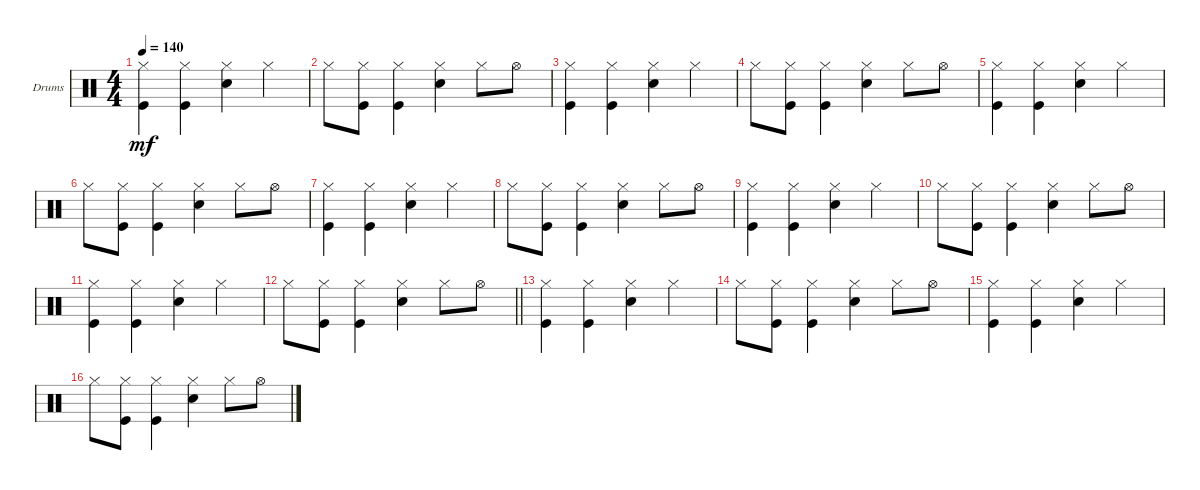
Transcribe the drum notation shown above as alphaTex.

\defaultSystemsLayout 4
\bracketExtendMode groupsimilarinstruments
\firstSystemTrackNameOrientation horizontal
\otherSystemsTrackNameOrientation horizontal
\track ("Drumkit" "Drums") {instrument percussion}
\staff {score}
\articulation defaults
\ts (4 4)
\tempo 140
\clef neutral
\ks c
("Hi-Hat (closed)" "Kick (hit)").4{dy mf} ("Hi-Hat (closed)" "Kick (hit)").4 ("Hi-Hat (closed)" "Snare (hit) 2").4 "Hi-Hat (closed)".4 |
"Hi-Hat (closed)".8 ("Hi-Hat (closed)" "Kick (hit)").8 ("Hi-Hat (closed)" "Kick (hit)").4 ("Snare (hit) 2" "Hi-Hat (closed)").4 "Hi-Hat (closed)".8 "Hi-Hat (open)".8 |
("Hi-Hat (closed)" "Kick (hit)").4 ("Hi-Hat (closed)" "Kick (hit)").4 ("Hi-Hat (closed)" "Snare (hit) 2").4 "Hi-Hat (closed)".4 |
"Hi-Hat (closed)".8 ("Hi-Hat (closed)" "Kick (hit)").8 ("Hi-Hat (closed)" "Kick (hit)").4 ("Snare (hit) 2" "Hi-Hat (closed)").4 "Hi-Hat (closed)".8 "Hi-Hat (open)".8 |
("Hi-Hat (closed)" "Kick (hit)").4 ("Hi-Hat (closed)" "Kick (hit)").4 ("Hi-Hat (closed)" "Snare (hit) 2").4 "Hi-Hat (closed)".4 |
"Hi-Hat (closed)".8 ("Hi-Hat (closed)" "Kick (hit)").8 ("Hi-Hat (closed)" "Kick (hit)").4 ("Snare (hit) 2" "Hi-Hat (closed)").4 "Hi-Hat (closed)".8 "Hi-Hat (open)".8 |
("Hi-Hat (closed)" "Kick (hit)").4 ("Hi-Hat (closed)" "Kick (hit)").4 ("Hi-Hat (closed)" "Snare (hit) 2").4 "Hi-Hat (closed)".4 |
"Hi-Hat (closed)".8 ("Hi-Hat (closed)" "Kick (hit)").8 ("Hi-Hat (closed)" "Kick (hit)").4 ("Snare (hit) 2" "Hi-Hat (closed)").4 "Hi-Hat (closed)".8 "Hi-Hat (open)".8 |
("Hi-Hat (closed)" "Kick (hit)").4 ("Hi-Hat (closed)" "Kick (hit)").4 ("Hi-Hat (closed)" "Snare (hit) 2").4 "Hi-Hat (closed)".4 |
"Hi-Hat (closed)".8 ("Hi-Hat (closed)" "Kick (hit)").8 ("Hi-Hat (closed)" "Kick (hit)").4 ("Snare (hit) 2" "Hi-Hat (closed)").4 "Hi-Hat (closed)".8 "Hi-Hat (open)".8 |
("Hi-Hat (closed)" "Kick (hit)").4 ("Hi-Hat (closed)" "Kick (hit)").4 ("Hi-Hat (closed)" "Snare (hit) 2").4 "Hi-Hat (closed)".4 |
\barLineRight lightlight "Hi-Hat (closed)".8
("Hi-Hat (closed)" "Kick (hit)").8 ("Hi-Hat (closed)" "Kick (hit)").4 ("Snare (hit) 2" "Hi-Hat (closed)").4 "Hi-Hat (closed)".8 "Hi-Hat (open)".8 |
("Hi-Hat (closed)" "Kick (hit)").4 ("Hi-Hat (closed)" "Kick (hit)").4 ("Hi-Hat (closed)" "Snare (hit) 2").4 "Hi-Hat (closed)".4 |
"Hi-Hat (closed)".8 ("Hi-Hat (closed)" "Kick (hit)").8 ("Hi-Hat (closed)" "Kick (hit)").4 ("Snare (hit) 2" "Hi-Hat (closed)").4 "Hi-Hat (closed)".8 "Hi-Hat (open)".8 |
("Hi-Hat (closed)" "Kick (hit)").4 ("Hi-Hat (closed)" "Kick (hit)").4 ("Hi-Hat (closed)" "Snare (hit) 2").4 "Hi-Hat (closed)".4 |
"Hi-Hat (closed)".8 ("Hi-Hat (closed)" "Kick (hit)").8 ("Hi-Hat (closed)" "Kick (hit)").4 ("Snare (hit) 2" "Hi-Hat (closed)").4 "Hi-Hat (closed)".8 "Hi-Hat (open)".8
